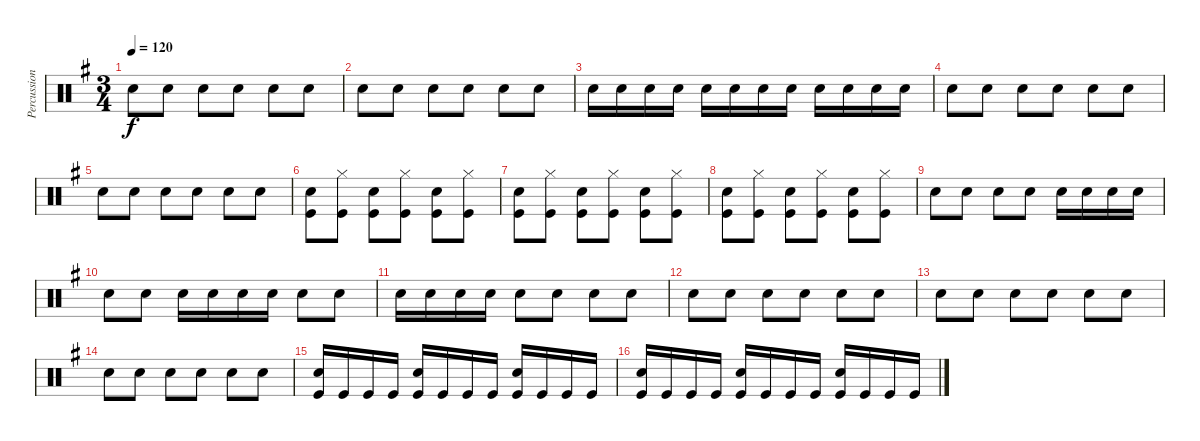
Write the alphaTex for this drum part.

\track ("Percussion" "Percussion") {instrument percussion}
\staff {score}
\articulation defaults
\ts (3 4)
\tempo 120
\clef neutral
\ks eminor "Snare (hit) 2".8{dy f} "Snare (hit) 2".8 "Snare (hit) 2".8 "Snare (hit) 2".8 "Snare (hit) 2".8 "Snare (hit) 2".8
|
"Snare (hit) 2".8 "Snare (hit) 2".8 "Snare (hit) 2".8 "Snare (hit) 2".8 "Snare (hit) 2".8 "Snare (hit) 2".8 |
"Snare (hit) 2".16 "Snare (hit) 2".16 "Snare (hit) 2".16 "Snare (hit) 2".16 "Snare (hit) 2".16 "Snare (hit) 2".16 "Snare (hit) 2".16 "Snare (hit) 2".16 "Snare (hit) 2".16 "Snare (hit) 2".16 "Snare (hit) 2".16 "Snare (hit) 2".16 |
"Snare (hit) 2".8 "Snare (hit) 2".8 "Snare (hit) 2".8 "Snare (hit) 2".8 "Snare (hit) 2".8 "Snare (hit) 2".8 |
"Snare (hit) 2".8 "Snare (hit) 2".8 "Snare (hit) 2".8 "Snare (hit) 2".8 "Snare (hit) 2".8 "Snare (hit) 2".8 |
("Snare (hit) 2" "Kick (hit)").8 ("Hi-Hat (closed)" "Kick (hit)").8 ("Snare (hit) 2" "Kick (hit)").8 ("Hi-Hat (closed)" "Kick (hit)").8 ("Snare (hit) 2" "Kick (hit)").8 ("Hi-Hat (closed)" "Kick (hit)").8 |
("Snare (hit) 2" "Kick (hit)").8 ("Hi-Hat (closed)" "Kick (hit)").8 ("Snare (hit) 2" "Kick (hit)").8 ("Hi-Hat (closed)" "Kick (hit)").8 ("Snare (hit) 2" "Kick (hit)").8 ("Hi-Hat (closed)" "Kick (hit)").8 |
("Snare (hit) 2" "Kick (hit)").8 ("Hi-Hat (closed)" "Kick (hit)").8 ("Snare (hit) 2" "Kick (hit)").8 ("Hi-Hat (closed)" "Kick (hit)").8 ("Snare (hit) 2" "Kick (hit)").8 ("Hi-Hat (closed)" "Kick (hit)").8 |
"Snare (hit) 2".8 "Snare (hit) 2".8 "Snare (hit) 2".8 "Snare (hit) 2".8 "Snare (hit) 2".16 "Snare (hit) 2".16 "Snare (hit) 2".16 "Snare (hit) 2".16 |
"Snare (hit) 2".8 "Snare (hit) 2".8 "Snare (hit) 2".16 "Snare (hit) 2".16 "Snare (hit) 2".16 "Snare (hit) 2".16 "Snare (hit) 2".8 "Snare (hit) 2".8 |
"Snare (hit) 2".16 "Snare (hit) 2".16 "Snare (hit) 2".16 "Snare (hit) 2".16 "Snare (hit) 2".8 "Snare (hit) 2".8 "Snare (hit) 2".8 "Snare (hit) 2".8 |
"Snare (hit) 2".8 "Snare (hit) 2".8 "Snare (hit) 2".8 "Snare (hit) 2".8 "Snare (hit) 2".8 "Snare (hit) 2".8 |
"Snare (hit) 2".8 "Snare (hit) 2".8 "Snare (hit) 2".8 "Snare (hit) 2".8 "Snare (hit) 2".8 "Snare (hit) 2".8 |
"Snare (hit) 2".8 "Snare (hit) 2".8 "Snare (hit) 2".8 "Snare (hit) 2".8 "Snare (hit) 2".8 "Snare (hit) 2".8 |
("Snare (hit) 2" "Kick (hit)").16 "Kick (hit)".16 "Kick (hit)".16 "Kick (hit)".16 ("Snare (hit) 2" "Kick (hit)").16 "Kick (hit)".16 "Kick (hit)".16 "Kick (hit)".16 ("Snare (hit) 2" "Kick (hit)").16 "Kick (hit)".16 "Kick (hit)".16 "Kick (hit)".16 |
("Snare (hit) 2" "Kick (hit)").16 "Kick (hit)".16 "Kick (hit)".16 "Kick (hit)".16 ("Snare (hit) 2" "Kick (hit)").16 "Kick (hit)".16 "Kick (hit)".16 "Kick (hit)".16 ("Snare (hit) 2" "Kick (hit)").16 "Kick (hit)".16 "Kick (hit)".16 "Kick (hit)".16
